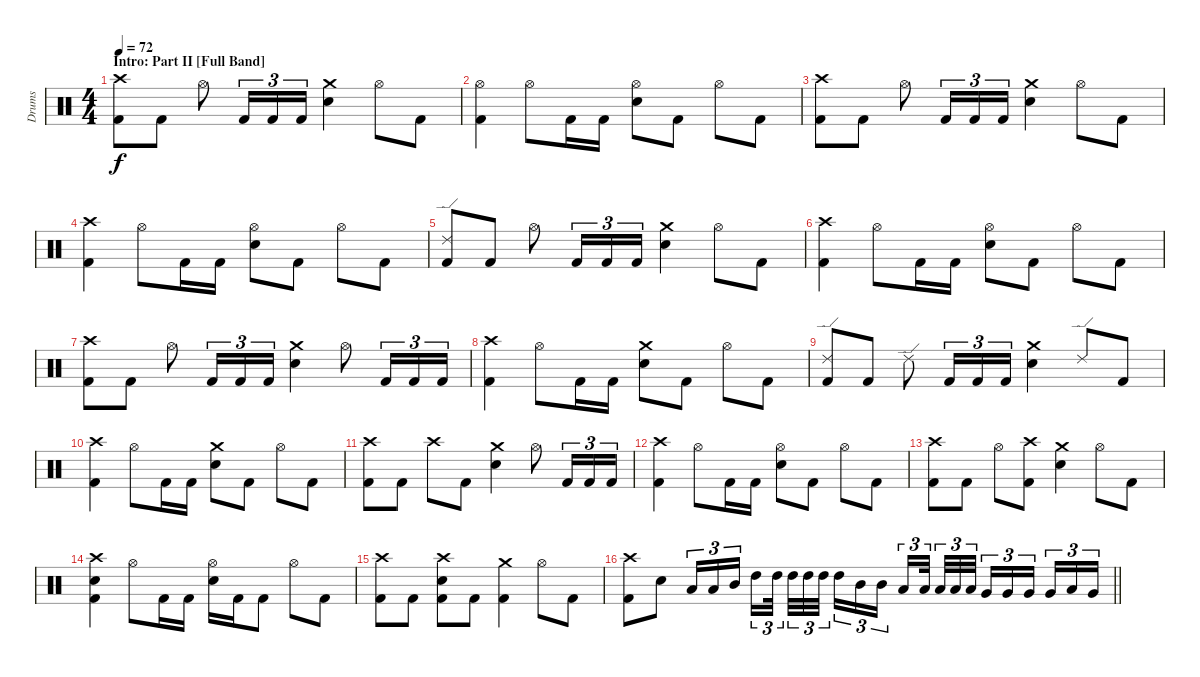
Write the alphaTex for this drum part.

\track ("Drums" "Drums") {instrument percussion}
\staff {score}
\articulation defaults
\ts (4 4)
\section ("" "Intro: Part II [Full Band]")
\tempo 72
\clef neutral
\ks c
("Crash high (hit)" "Kick (hit) 2").8{dy f} "Kick (hit) 2".8 "Hi-Hat (open)".8 "Kick (hit) 2".16{tu (3 2)} "Kick (hit) 2".16{tu (3 2)} "Kick (hit) 2".16{tu (3 2)} ("Crash medium (hit)" "Electric Snare (hit)").4 "Hi-Hat (open)".8 "Kick (hit) 2".8 |
("Hi-Hat (open)" "Kick (hit) 2").4 "Hi-Hat (open)".8 "Kick (hit) 2".16 "Kick (hit) 2".16 ("Hi-Hat (open)" "Electric Snare (hit)").8 "Kick (hit) 2".8 "Hi-Hat (open)".8 "Kick (hit) 2".8 |
("Crash high (hit)" "Kick (hit) 2").8 "Kick (hit) 2".8 "Hi-Hat (open)".8 "Kick (hit) 2".16{tu (3 2)} "Kick (hit) 2".16{tu (3 2)} "Kick (hit) 2".16{tu (3 2)} ("Crash medium (hit)" "Electric Snare (hit)").4 "Hi-Hat (open)".8 "Kick (hit) 2".8 |
("Crash high (hit)" "Kick (hit) 2").4 "Hi-Hat (open)".8 "Kick (hit) 2".16 "Kick (hit) 2".16 ("Hi-Hat (open)" "Electric Snare (hit)").8 "Kick (hit) 2".8 "Hi-Hat (open)".8 "Kick (hit) 2".8 |
("Ride (edge) 2" "Kick (hit) 2").8 "Kick (hit) 2".8 "Hi-Hat (open)".8 "Kick (hit) 2".16{tu (3 2)} "Kick (hit) 2".16{tu (3 2)} "Kick (hit) 2".16{tu (3 2)} ("Crash medium (hit)" "Electric Snare (hit)").4 "Hi-Hat (open)".8 "Kick (hit) 2".8 |
("Crash high (hit)" "Kick (hit) 2").4 "Hi-Hat (open)".8 "Kick (hit) 2".16 "Kick (hit) 2".16 ("Hi-Hat (open)" "Electric Snare (hit)").8 "Kick (hit) 2".8 "Hi-Hat (open)".8 "Kick (hit) 2".8 |
("Crash high (hit)" "Kick (hit) 2").8 "Kick (hit) 2".8 "Hi-Hat (open)".8 "Kick (hit) 2".16{tu (3 2)} "Kick (hit) 2".16{tu (3 2)} "Kick (hit) 2".16{tu (3 2)} ("Crash medium (hit)" "Electric Snare (hit)").4 "Hi-Hat (open)".8 "Kick (hit) 2".16{tu (3 2)} "Kick (hit) 2".16{tu (3 2)} "Kick (hit) 2".16{tu (3 2)} |
("Crash high (hit)" "Kick (hit) 2").4 "Hi-Hat (open)".8 "Kick (hit) 2".16 "Kick (hit) 2".16 ("Crash medium (hit)" "Electric Snare (hit)").8 "Kick (hit) 2".8 "Hi-Hat (open)".8 "Kick (hit) 2".8 |
("Ride (edge) 2" "Kick (hit) 2").8 "Kick (hit) 2".8 "Ride (edge) 2".8 "Kick (hit) 2".16{tu (3 2)} "Kick (hit) 2".16{tu (3 2)} "Kick (hit) 2".16{tu (3 2)} ("Crash medium (hit)" "Electric Snare (hit)").4 "Ride (edge) 2".8 "Kick (hit) 2".8 |
("Crash high (hit)" "Kick (hit) 2").4 "Hi-Hat (open)".8 "Kick (hit) 2".16 "Kick (hit) 2".16 ("Crash medium (hit)" "Electric Snare (hit)").8 "Kick (hit) 2".8 "Hi-Hat (open)".8 "Kick (hit) 2".8 |
("Crash high (hit)" "Kick (hit) 2").8 "Kick (hit) 2".8 "Crash high (hit)".8 "Kick (hit) 2".8 ("Crash medium (hit)" "Electric Snare (hit)").4 "Hi-Hat (open)".8 "Kick (hit) 2".16{tu (3 2)} "Kick (hit) 2".16{tu (3 2)} "Kick (hit) 2".16{tu (3 2)} |
("Crash high (hit)" "Kick (hit) 2").4 "Hi-Hat (open)".8 "Kick (hit) 2".16 "Kick (hit) 2".16 ("Hi-Hat (open)" "Electric Snare (hit)").8 "Kick (hit) 2".8 "Hi-Hat (open)".8 "Kick (hit) 2".8 |
("Crash high (hit)" "Kick (hit) 2").8 "Kick (hit) 2".8 "Hi-Hat (open)".8 ("Crash high (hit)" "Kick (hit) 2").8 ("Crash medium (hit)" "Electric Snare (hit)").4 "Hi-Hat (open)".8 "Kick (hit) 2".8 |
("Crash high (hit)" "Electric Snare (hit)" "Kick (hit) 2").4 "Hi-Hat (open)".8 "Kick (hit) 2".16 "Kick (hit) 2".16 ("Hi-Hat (open)" "Electric Snare (hit)").16 "Kick (hit) 2".16 "Kick (hit) 2".8 "Hi-Hat (open)".8 "Kick (hit) 2".8 |
("Crash high (hit)" "Kick (hit) 2").8 "Kick (hit) 2".8 ("Crash high (hit)" "Electric Snare (hit)" "Kick (hit) 2").8 "Kick (hit) 2".8 ("Crash medium (hit)" "Kick (hit) 2").4 "Hi-Hat (open)".8 "Kick (hit) 2".8 |
\barLineRight lightlight
("Crash high (hit)" "Kick (hit) 2").8 "Electric Snare (hit)".8 "Low Tom (hit)".16{tu (3 2)} "Low Tom (hit)".16{tu (3 2)} "Mid Tom (hit)".16{tu (3 2) beam splitsecondary} "High Tom (hit)".16{tu (3 2)} "High Tom (hit)".32{tu (3 2) beam splitsecondary} "High Tom (hit)".32{tu (3 2)} "High Tom (hit)".32{tu (3 2)} "High Tom (hit)".32{tu (3 2)} "High Tom (hit)".16{tu (3 2)} "Mid Tom (hit)".16{tu (3 2)} "Mid Tom (hit)".16{tu (3 2) beam splitsecondary} "Low Tom (hit)".16{tu (3 2)} "Low Tom (hit)".32{tu (3 2) beam splitsecondary} "Low Tom (hit)".32{tu (3 2)} "Low Tom (hit)".32{tu (3 2)} "Low Tom (hit)".32{tu (3 2)} "Very Low Tom (hit)".16{tu (3 2)} "Very Low Tom (hit)".16{tu (3 2)} "Very Low Tom (hit)".16{tu (3 2) beam splitsecondary} "Very Low Tom (hit)".16{tu (3 2)} "Low Floor Tom (hit)".16{tu (3 2)} "Very Low Tom (hit)".16{tu (3 2)}
